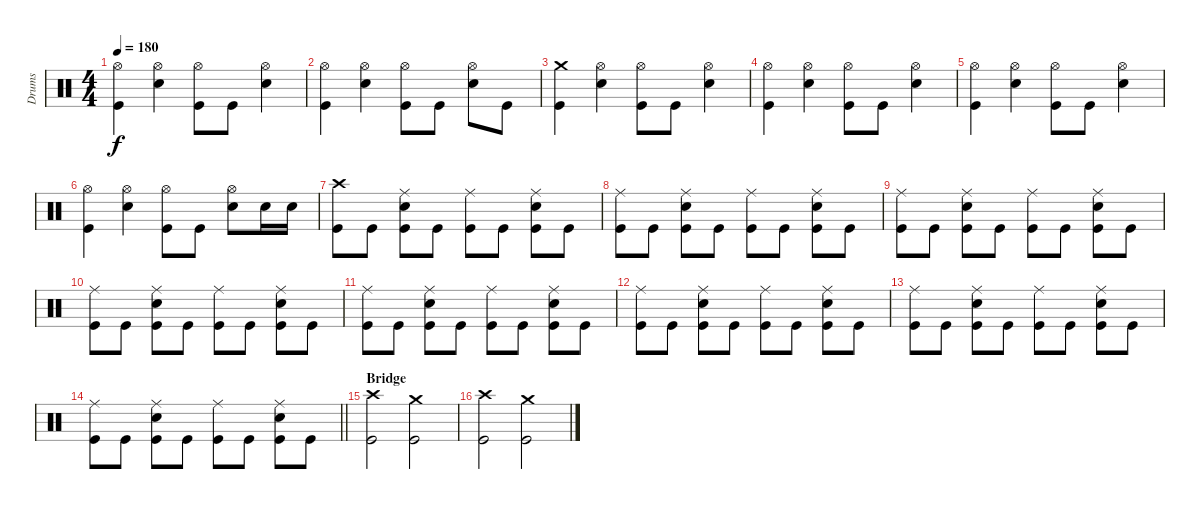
\track ("Drums" "Drums") {instrument percussion}
\staff {score}
\articulation defaults
\ts (4 4)
\tempo 180
\clef neutral
\ks c
("Hi-Hat (open)" "Kick (hit)").4{dy f} ("Hi-Hat (open)" "Electric Snare (hit)").4 ("Hi-Hat (open)" "Kick (hit)").8 "Kick (hit)".8 ("Hi-Hat (open)" "Electric Snare (hit)").4 |
("Hi-Hat (open)" "Kick (hit)").4 ("Hi-Hat (open)" "Electric Snare (hit)").4 ("Hi-Hat (open)" "Kick (hit)").8 "Kick (hit)".8 ("Hi-Hat (open)" "Electric Snare (hit)").8 "Kick (hit)".8 |
("Crash medium (hit)" "Kick (hit)").4 ("Hi-Hat (open)" "Electric Snare (hit)").4 ("Hi-Hat (open)" "Kick (hit)").8 "Kick (hit)".8 ("Hi-Hat (open)" "Electric Snare (hit)").4 |
("Hi-Hat (open)" "Kick (hit)").4 ("Hi-Hat (open)" "Electric Snare (hit)").4 ("Hi-Hat (open)" "Kick (hit)").8 "Kick (hit)".8 ("Hi-Hat (open)" "Electric Snare (hit)").4 |
("Hi-Hat (open)" "Kick (hit)").4 ("Hi-Hat (open)" "Electric Snare (hit)").4 ("Hi-Hat (open)" "Kick (hit)").8 "Kick (hit)".8 ("Hi-Hat (open)" "Electric Snare (hit)").4 |
("Hi-Hat (open)" "Kick (hit)").4 ("Hi-Hat (open)" "Electric Snare (hit)").4 ("Hi-Hat (open)" "Kick (hit)").8 "Kick (hit)".8 ("Hi-Hat (open)" "Electric Snare (hit)").8 "Electric Snare (hit)".16 "Electric Snare (hit)".16 |
("Crash high (hit)" "Kick (hit)").8 "Kick (hit)".8 ("Ride (middle)" "Electric Snare (hit)" "Kick (hit)").8 "Kick (hit)".8 ("Ride (middle)" "Kick (hit)").8 "Kick (hit)".8 ("Ride (middle)" "Electric Snare (hit)" "Kick (hit)").8 "Kick (hit)".8 |
("Ride (middle)" "Kick (hit)").8 "Kick (hit)".8 ("Ride (middle)" "Electric Snare (hit)" "Kick (hit)").8 "Kick (hit)".8 ("Ride (middle)" "Kick (hit)").8 "Kick (hit)".8 ("Ride (middle)" "Electric Snare (hit)" "Kick (hit)").8 "Kick (hit)".8 |
("Ride (middle)" "Kick (hit)").8 "Kick (hit)".8 ("Ride (middle)" "Electric Snare (hit)" "Kick (hit)").8 "Kick (hit)".8 ("Ride (middle)" "Kick (hit)").8 "Kick (hit)".8 ("Ride (middle)" "Electric Snare (hit)" "Kick (hit)").8 "Kick (hit)".8 |
("Ride (middle)" "Kick (hit)").8 "Kick (hit)".8 ("Ride (middle)" "Electric Snare (hit)" "Kick (hit)").8 "Kick (hit)".8 ("Ride (middle)" "Kick (hit)").8 "Kick (hit)".8 ("Ride (middle)" "Electric Snare (hit)" "Kick (hit)").8 "Kick (hit)".8 |
("Ride (middle)" "Kick (hit)").8 "Kick (hit)".8 ("Ride (middle)" "Electric Snare (hit)" "Kick (hit)").8 "Kick (hit)".8 ("Ride (middle)" "Kick (hit)").8 "Kick (hit)".8 ("Ride (middle)" "Electric Snare (hit)" "Kick (hit)").8 "Kick (hit)".8 |
("Ride (middle)" "Kick (hit)").8 "Kick (hit)".8 ("Ride (middle)" "Electric Snare (hit)" "Kick (hit)").8 "Kick (hit)".8 ("Ride (middle)" "Kick (hit)").8 "Kick (hit)".8 ("Ride (middle)" "Electric Snare (hit)" "Kick (hit)").8 "Kick (hit)".8 |
("Ride (middle)" "Kick (hit)").8 "Kick (hit)".8 ("Ride (middle)" "Electric Snare (hit)" "Kick (hit)").8 "Kick (hit)".8 ("Ride (middle)" "Kick (hit)").8 "Kick (hit)".8 ("Ride (middle)" "Electric Snare (hit)" "Kick (hit)").8 "Kick (hit)".8 |
\barLineRight lightlight
("Ride (middle)" "Kick (hit)").8 "Kick (hit)".8 ("Ride (middle)" "Electric Snare (hit)" "Kick (hit)").8 "Kick (hit)".8 ("Ride (middle)" "Kick (hit)").8 "Kick (hit)".8 ("Ride (middle)" "Electric Snare (hit)" "Kick (hit)").8 "Kick (hit)".8 |
\section ("" "Bridge")
("Crash high (hit)" "Kick (hit)").2 ("Crash medium (hit)" "Kick (hit)").2 |
("Crash high (hit)" "Kick (hit)").2 ("Crash medium (hit)" "Kick (hit)").2
